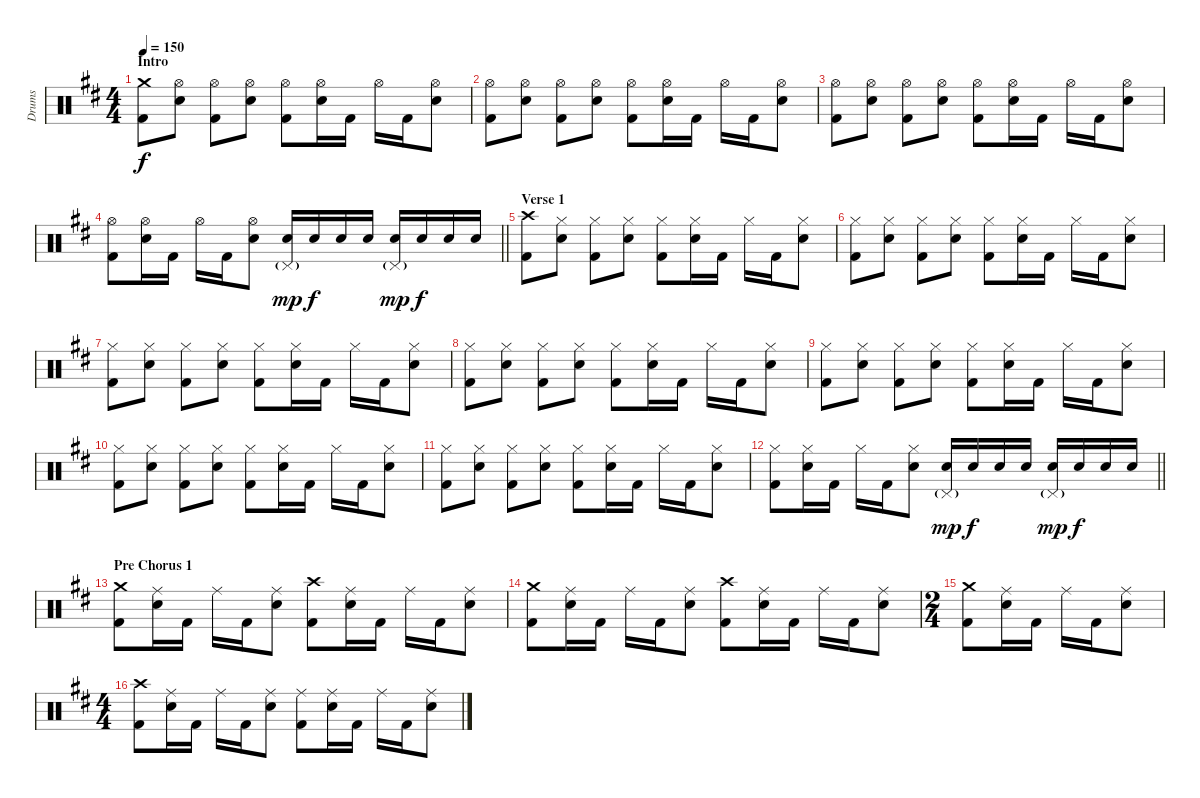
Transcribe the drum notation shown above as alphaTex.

\track ("Drums" "Drums") {instrument percussion}
\staff {score}
\articulation defaults
\ts (4 4)
\section ("" "Intro")
\tempo 150
\clef neutral
\ks bminor
("Crash medium (hit)" "Kick (hit) 2").8{dy f} ("Hi-Hat (open)" "Electric Snare (hit)").8 ("Hi-Hat (open)" "Kick (hit) 2").8 ("Hi-Hat (open)" "Electric Snare (hit)").8 ("Hi-Hat (open)" "Kick (hit) 2").8 ("Hi-Hat (open)" "Electric Snare (hit)").16 "Kick (hit) 2".16 "Hi-Hat (open)".16 "Kick (hit) 2".16 ("Hi-Hat (open)" "Electric Snare (hit)").8 |
("Hi-Hat (open)" "Kick (hit) 2").8 ("Hi-Hat (open)" "Electric Snare (hit)").8 ("Hi-Hat (open)" "Kick (hit) 2").8 ("Hi-Hat (open)" "Electric Snare (hit)").8 ("Hi-Hat (open)" "Kick (hit) 2").8 ("Hi-Hat (open)" "Electric Snare (hit)").16 "Kick (hit) 2".16 "Hi-Hat (open)".16 "Kick (hit) 2".16 ("Hi-Hat (open)" "Electric Snare (hit)").8 |
("Hi-Hat (open)" "Kick (hit) 2").8 ("Hi-Hat (open)" "Electric Snare (hit)").8 ("Hi-Hat (open)" "Kick (hit) 2").8 ("Hi-Hat (open)" "Electric Snare (hit)").8 ("Hi-Hat (open)" "Kick (hit) 2").8 ("Hi-Hat (open)" "Electric Snare (hit)").16 "Kick (hit) 2".16 "Hi-Hat (open)".16 "Kick (hit) 2".16 ("Hi-Hat (open)" "Electric Snare (hit)").8 |
\barLineRight lightlight
("Hi-Hat (open)" "Kick (hit) 2").8 ("Hi-Hat (open)" "Electric Snare (hit)").16 "Kick (hit) 2".16 "Hi-Hat (open)".16 "Kick (hit) 2".16 ("Hi-Hat (open)" "Electric Snare (hit)").8 ("Pedal Hi-Hat (hit)"{g} "Electric Snare (hit)").16{dy mp} "Electric Snare (hit)".16{dy f} "Electric Snare (hit)".16 "Electric Snare (hit)".16 ("Pedal Hi-Hat (hit)"{g} "Electric Snare (hit)").16{dy mp} "Electric Snare (hit)".16{dy f} "Electric Snare (hit)".16 "Electric Snare (hit)".16 |
\section ("" "Verse 1")
("Crash high (hit)" "Kick (hit) 2").8 ("Hi-Hat (closed)" "Electric Snare (hit)").8 ("Hi-Hat (closed)" "Kick (hit) 2").8 ("Hi-Hat (closed)" "Electric Snare (hit)").8 ("Hi-Hat (closed)" "Kick (hit) 2").8 ("Hi-Hat (closed)" "Electric Snare (hit)").16 "Kick (hit) 2".16 "Hi-Hat (closed)".16 "Kick (hit) 2".16 ("Hi-Hat (closed)" "Electric Snare (hit)").8 |
("Hi-Hat (closed)" "Kick (hit) 2").8 ("Hi-Hat (closed)" "Electric Snare (hit)").8 ("Hi-Hat (closed)" "Kick (hit) 2").8 ("Hi-Hat (closed)" "Electric Snare (hit)").8 ("Hi-Hat (closed)" "Kick (hit) 2").8 ("Hi-Hat (closed)" "Electric Snare (hit)").16 "Kick (hit) 2".16 "Hi-Hat (closed)".16 "Kick (hit) 2".16 ("Hi-Hat (closed)" "Electric Snare (hit)").8 |
("Hi-Hat (closed)" "Kick (hit) 2").8 ("Hi-Hat (closed)" "Electric Snare (hit)").8 ("Hi-Hat (closed)" "Kick (hit) 2").8 ("Hi-Hat (closed)" "Electric Snare (hit)").8 ("Hi-Hat (closed)" "Kick (hit) 2").8 ("Hi-Hat (closed)" "Electric Snare (hit)").16 "Kick (hit) 2".16 "Hi-Hat (closed)".16 "Kick (hit) 2".16 ("Hi-Hat (closed)" "Electric Snare (hit)").8 |
("Hi-Hat (closed)" "Kick (hit) 2").8 ("Hi-Hat (closed)" "Electric Snare (hit)").8 ("Hi-Hat (closed)" "Kick (hit) 2").8 ("Hi-Hat (closed)" "Electric Snare (hit)").8 ("Hi-Hat (closed)" "Kick (hit) 2").8 ("Hi-Hat (closed)" "Electric Snare (hit)").16 "Kick (hit) 2".16 "Hi-Hat (closed)".16 "Kick (hit) 2".16 ("Hi-Hat (closed)" "Electric Snare (hit)").8 |
("Hi-Hat (closed)" "Kick (hit) 2").8 ("Hi-Hat (closed)" "Electric Snare (hit)").8 ("Hi-Hat (closed)" "Kick (hit) 2").8 ("Hi-Hat (closed)" "Electric Snare (hit)").8 ("Hi-Hat (closed)" "Kick (hit) 2").8 ("Hi-Hat (closed)" "Electric Snare (hit)").16 "Kick (hit) 2".16 "Hi-Hat (closed)".16 "Kick (hit) 2".16 ("Hi-Hat (closed)" "Electric Snare (hit)").8 |
("Hi-Hat (closed)" "Kick (hit) 2").8 ("Hi-Hat (closed)" "Electric Snare (hit)").8 ("Hi-Hat (closed)" "Kick (hit) 2").8 ("Hi-Hat (closed)" "Electric Snare (hit)").8 ("Hi-Hat (closed)" "Kick (hit) 2").8 ("Hi-Hat (closed)" "Electric Snare (hit)").16 "Kick (hit) 2".16 "Hi-Hat (closed)".16 "Kick (hit) 2".16 ("Hi-Hat (closed)" "Electric Snare (hit)").8 |
("Hi-Hat (closed)" "Kick (hit) 2").8 ("Hi-Hat (closed)" "Electric Snare (hit)").8 ("Hi-Hat (closed)" "Kick (hit) 2").8 ("Hi-Hat (closed)" "Electric Snare (hit)").8 ("Hi-Hat (closed)" "Kick (hit) 2").8 ("Hi-Hat (closed)" "Electric Snare (hit)").16 "Kick (hit) 2".16 "Hi-Hat (closed)".16 "Kick (hit) 2".16 ("Hi-Hat (closed)" "Electric Snare (hit)").8 |
\barLineRight lightlight
("Hi-Hat (closed)" "Kick (hit) 2").8 ("Hi-Hat (closed)" "Electric Snare (hit)").16 "Kick (hit) 2".16 "Hi-Hat (closed)".16 "Kick (hit) 2".16 ("Hi-Hat (closed)" "Electric Snare (hit)").8 ("Pedal Hi-Hat (hit)"{g} "Electric Snare (hit)").16{dy mp} "Electric Snare (hit)".16{dy f} "Electric Snare (hit)".16 "Electric Snare (hit)".16 ("Pedal Hi-Hat (hit)"{g} "Electric Snare (hit)").16{dy mp} "Electric Snare (hit)".16{dy f} "Electric Snare (hit)".16 "Electric Snare (hit)".16 |
\section ("" "Pre Chorus 1")
("Crash medium (hit)" "Kick (hit) 2").8 ("Ride (middle)" "Electric Snare (hit)").16 "Kick (hit) 2".16 "Ride (middle)".16 "Kick (hit) 2".16 ("Ride (middle)" "Electric Snare (hit)").8 ("Crash high (hit)" "Kick (hit) 2").8 ("Ride (middle)" "Electric Snare (hit)").16 "Kick (hit) 2".16 "Ride (middle)".16 "Kick (hit) 2".16 ("Ride (middle)" "Electric Snare (hit)").8 |
("Crash medium (hit)" "Kick (hit) 2").8 ("Ride (middle)" "Electric Snare (hit)").16 "Kick (hit) 2".16 "Ride (middle)".16 "Kick (hit) 2".16 ("Ride (middle)" "Electric Snare (hit)").8 ("Crash high (hit)" "Kick (hit) 2").8 ("Ride (middle)" "Electric Snare (hit)").16 "Kick (hit) 2".16 "Ride (middle)".16 "Kick (hit) 2".16 ("Ride (middle)" "Electric Snare (hit)").8 |
\ts (2 4)
("Crash medium (hit)" "Kick (hit) 2").8 ("Ride (middle)" "Electric Snare (hit)").16 "Kick (hit) 2".16 "Ride (middle)".16 "Kick (hit) 2".16 ("Ride (middle)" "Electric Snare (hit)").8 |
\ts (4 4)
("Crash high (hit)" "Kick (hit) 2").8 ("Ride (middle)" "Electric Snare (hit)").16 "Kick (hit) 2".16 "Ride (middle)".16 "Kick (hit) 2".16 ("Ride (middle)" "Electric Snare (hit)").8 ("Ride (middle)" "Kick (hit) 2").8 ("Ride (middle)" "Electric Snare (hit)").16 "Kick (hit) 2".16 "Ride (middle)".16 "Kick (hit) 2".16 ("Ride (middle)" "Electric Snare (hit)").8
